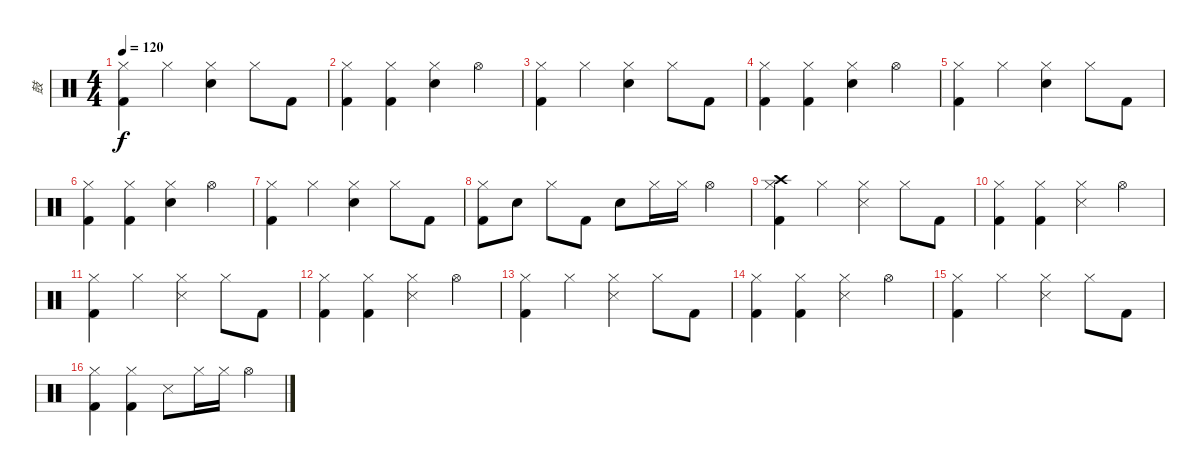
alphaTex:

\track ("鼓" "鼓") {instrument percussion}
\staff {score}
\articulation defaults
\ts (4 4)
\tempo 120
\clef neutral
\ks c
("Hi-Hat (closed)" "Kick (hit) 2").4{dy f} "Hi-Hat (closed)".4 ("Hi-Hat (closed)" "Electric Snare (hit)").4 "Hi-Hat (closed)".8 "Kick (hit) 2".8 |
("Hi-Hat (closed)" "Kick (hit) 2").4 ("Hi-Hat (closed)" "Kick (hit) 2").4 ("Hi-Hat (closed)" "Electric Snare (hit)").4 "Hi-Hat (open)".4 |
("Hi-Hat (closed)" "Kick (hit) 2").4 "Hi-Hat (closed)".4 ("Hi-Hat (closed)" "Electric Snare (hit)").4 "Hi-Hat (closed)".8 "Kick (hit) 2".8 |
("Hi-Hat (closed)" "Kick (hit) 2").4 ("Hi-Hat (closed)" "Kick (hit) 2").4 ("Hi-Hat (closed)" "Electric Snare (hit)").4 "Hi-Hat (open)".4 |
("Hi-Hat (closed)" "Kick (hit) 2").4 "Hi-Hat (closed)".4 ("Hi-Hat (closed)" "Electric Snare (hit)").4 "Hi-Hat (closed)".8 "Kick (hit) 2".8 |
("Hi-Hat (closed)" "Kick (hit) 2").4 ("Hi-Hat (closed)" "Kick (hit) 2").4 ("Hi-Hat (closed)" "Electric Snare (hit)").4 "Hi-Hat (open)".4 |
("Hi-Hat (closed)" "Kick (hit) 2").4 "Hi-Hat (closed)".4 ("Hi-Hat (closed)" "Electric Snare (hit)").4 "Hi-Hat (closed)".8 "Kick (hit) 2".8 |
("Hi-Hat (closed)" "Kick (hit) 2").8 "Electric Snare (hit)".8 "Hi-Hat (closed)".8 "Kick (hit) 2".8 "Electric Snare (hit)".8 "Hi-Hat (closed)".16 "Hi-Hat (closed)".16 "Hi-Hat (open)".4 |
("Hi-Hat (closed)" "Crash high (hit)" "Kick (hit) 2").4 "Hi-Hat (closed)".4 ("Hi-Hat (closed)" "Snare (side stick) 3").4 "Hi-Hat (closed)".8 "Kick (hit) 2".8 |
("Hi-Hat (closed)" "Kick (hit) 2").4 ("Hi-Hat (closed)" "Kick (hit) 2").4 ("Hi-Hat (closed)" "Snare (side stick) 3").4 "Hi-Hat (open)".4 |
("Hi-Hat (closed)" "Kick (hit) 2").4 "Hi-Hat (closed)".4 ("Hi-Hat (closed)" "Snare (side stick) 3").4 "Hi-Hat (closed)".8 "Kick (hit) 2".8 |
("Hi-Hat (closed)" "Kick (hit) 2").4 ("Hi-Hat (closed)" "Kick (hit) 2").4 ("Hi-Hat (closed)" "Snare (side stick) 3").4 "Hi-Hat (open)".4 |
("Hi-Hat (closed)" "Kick (hit) 2").4 "Hi-Hat (closed)".4 ("Hi-Hat (closed)" "Snare (side stick) 3").4 "Hi-Hat (closed)".8 "Kick (hit) 2".8 |
("Hi-Hat (closed)" "Kick (hit) 2").4 ("Hi-Hat (closed)" "Kick (hit) 2").4 ("Hi-Hat (closed)" "Snare (side stick) 3").4 "Hi-Hat (open)".4 |
("Hi-Hat (closed)" "Kick (hit) 2").4 "Hi-Hat (closed)".4 ("Hi-Hat (closed)" "Snare (side stick) 3").4 "Hi-Hat (closed)".8 "Kick (hit) 2".8 |
("Hi-Hat (closed)" "Kick (hit) 2").4 ("Hi-Hat (closed)" "Kick (hit) 2").4 "Snare (side stick) 3".8 "Hi-Hat (closed)".16 "Hi-Hat (closed)".16 "Hi-Hat (open)".4
